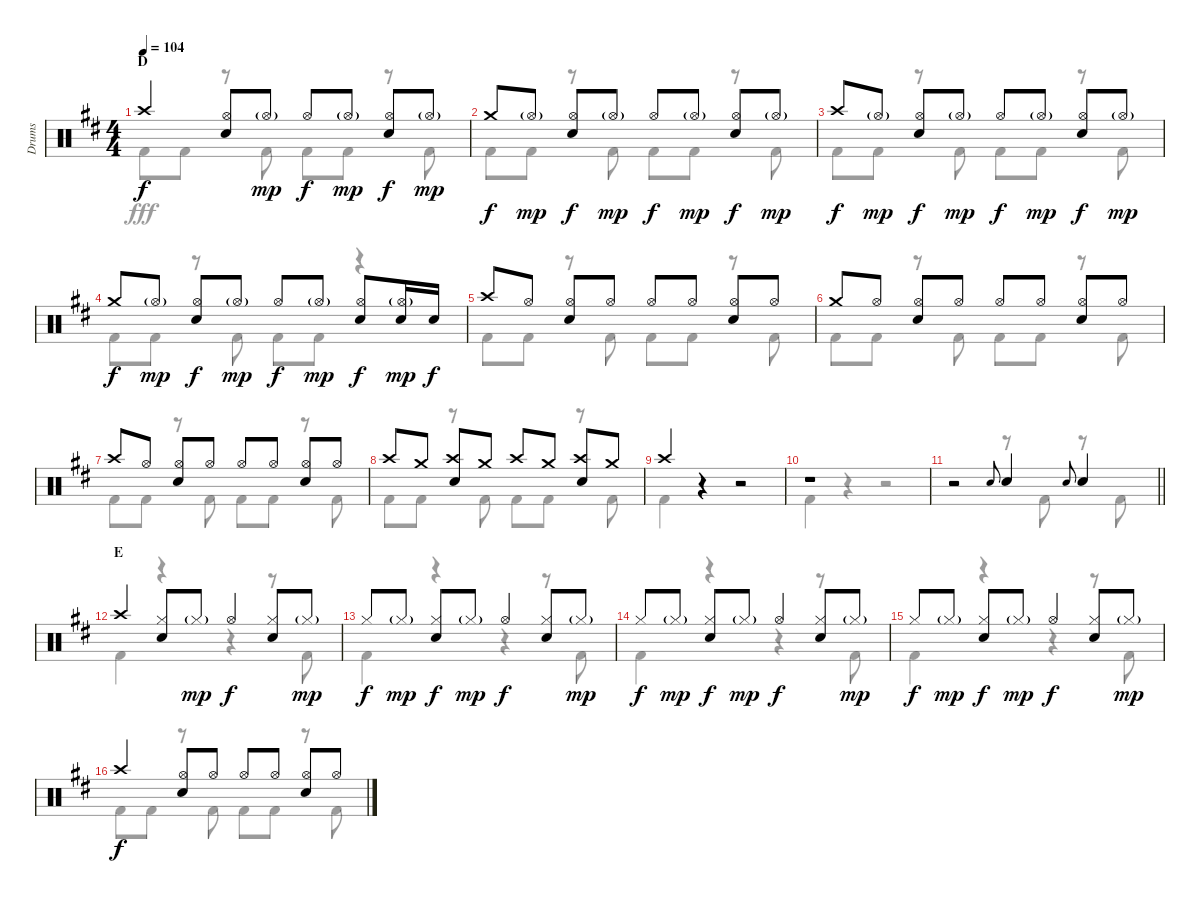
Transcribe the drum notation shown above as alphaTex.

\track ("Drums" "Drums") {instrument percussion}
\staff {score}
\articulation defaults
\voice
\ts (4 4)
\section ("" "D")
\tempo 104
\clef neutral
\ks d "Crash high (hit)".4{dy f}
("Hi-Hat (open)" "Snare (hit) 2").8 "Hi-Hat (open)"{g}.8{dy mp} "Hi-Hat (open)".8{dy f} "Hi-Hat (open)"{g}.8{dy mp} ("Hi-Hat (open)" "Snare (hit) 2").8{dy f} "Hi-Hat (open)"{g}.8{dy mp} |
"Crash medium (hit)".8{dy f} "Hi-Hat (open)"{g}.8{dy mp} ("Hi-Hat (open)" "Snare (hit) 2").8{dy f} "Hi-Hat (open)"{g}.8{dy mp} "Hi-Hat (open)".8{dy f} "Hi-Hat (open)"{g}.8{dy mp} ("Hi-Hat (open)" "Snare (hit) 2").8{dy f} "Hi-Hat (open)"{g}.8{dy mp} |
"Crash high (hit)".8{dy f} "Hi-Hat (open)"{g}.8{dy mp} ("Hi-Hat (open)" "Snare (hit) 2").8{dy f} "Hi-Hat (open)"{g}.8{dy mp} "Hi-Hat (open)".8{dy f} "Hi-Hat (open)"{g}.8{dy mp} ("Hi-Hat (open)" "Snare (hit) 2").8{dy f} "Hi-Hat (open)"{g}.8{dy mp} |
"Crash medium (hit)".8{dy f} "Hi-Hat (open)"{g}.8{dy mp} ("Hi-Hat (open)" "Snare (hit) 2").8{dy f} "Hi-Hat (open)"{g}.8{dy mp} "Hi-Hat (open)".8{dy f} "Hi-Hat (open)"{g}.8{dy mp} ("Hi-Hat (open)" "Snare (hit) 2").8{dy f} ("Hi-Hat (open)"{g} "Snare (hit) 2").16{dy mp} "Snare (hit) 2".16{dy f} |
"Crash high (hit)".8 "Hi-Hat (open)".8 ("Hi-Hat (open)" "Snare (hit) 2").8 "Hi-Hat (open)".8 "Hi-Hat (open)".8 "Hi-Hat (open)".8 ("Hi-Hat (open)" "Snare (hit) 2").8 "Hi-Hat (open)".8 |
"Crash medium (hit)".8 "Hi-Hat (open)".8 ("Hi-Hat (open)" "Snare (hit) 2").8 "Hi-Hat (open)".8 "Hi-Hat (open)".8 "Hi-Hat (open)".8 ("Hi-Hat (open)" "Snare (hit) 2").8 "Hi-Hat (open)".8 |
"Crash high (hit)".8 "Hi-Hat (open)".8 ("Hi-Hat (open)" "Snare (hit) 2").8 "Hi-Hat (open)".8 "Hi-Hat (open)".8 "Hi-Hat (open)".8 ("Hi-Hat (open)" "Snare (hit) 2").8 "Hi-Hat (open)".8 |
"Crash high (hit)".8 "Crash medium (hit)".8 ("Crash high (hit)" "Snare (hit) 2").8 "Crash medium (hit)".8 "Crash high (hit)".8 "Crash medium (hit)".8 ("Crash high (hit)" "Snare (hit) 2").8 "Crash medium (hit)".8 |
"Crash high (hit)".4 r.4 r.2 |
r.1 |
\barLineRight lightlight
r.2 "Snare (hit) 2".8{gr onbeat} "Snare (hit) 2".4 "Snare (hit) 2".8{gr onbeat} "Snare (hit) 2".4 |
\section ("" "E")
"Crash high (hit)".4 ("Hi-Hat (closed)" "Snare (hit) 2").8 "Hi-Hat (closed)"{g}.8{dy mp} "Hi-Hat (open)".4{dy f} ("Hi-Hat (closed)" "Snare (hit) 2").8 "Hi-Hat (closed)"{g}.8{dy mp} |
"Hi-Hat (closed)".8{dy f} "Hi-Hat (closed)"{g}.8{dy mp} ("Hi-Hat (closed)" "Snare (hit) 2").8{dy f} "Hi-Hat (closed)"{g}.8{dy mp} "Hi-Hat (open)".4{dy f} ("Hi-Hat (closed)" "Snare (hit) 2").8 "Hi-Hat (closed)"{g}.8{dy mp} |
"Hi-Hat (closed)".8{dy f} "Hi-Hat (closed)"{g}.8{dy mp} ("Hi-Hat (closed)" "Snare (hit) 2").8{dy f} "Hi-Hat (closed)"{g}.8{dy mp} "Hi-Hat (open)".4{dy f} ("Hi-Hat (closed)" "Snare (hit) 2").8 "Hi-Hat (closed)"{g}.8{dy mp} |
"Hi-Hat (closed)".8{dy f} "Hi-Hat (closed)"{g}.8{dy mp} ("Hi-Hat (closed)" "Snare (hit) 2").8{dy f} "Hi-Hat (closed)"{g}.8{dy mp} "Hi-Hat (open)".4{dy f} ("Hi-Hat (closed)" "Snare (hit) 2").8 "Hi-Hat (closed)"{g}.8{dy mp} |
"Crash high (hit)".4{dy f} ("Hi-Hat (open)" "Snare (hit) 2").8 "Hi-Hat (open)".8 "Hi-Hat (open)".8 "Hi-Hat (open)".8 ("Hi-Hat (open)" "Snare (hit) 2").8 "Hi-Hat (open)".8
\voice
\clef neutral
\ottava regular
\simile none
\ks d "Kick (hit) 2".8{dy fff} "Kick (hit) 2".8
r.8 "Kick (hit) 2".8 "Kick (hit) 2".8 "Kick (hit) 2".8 r.8 "Kick (hit) 2".8 |
"Kick (hit) 2".8 "Kick (hit) 2".8 r.8 "Kick (hit) 2".8 "Kick (hit) 2".8 "Kick (hit) 2".8 r.8 "Kick (hit) 2".8 |
"Kick (hit) 2".8 "Kick (hit) 2".8 r.8 "Kick (hit) 2".8 "Kick (hit) 2".8 "Kick (hit) 2".8 r.8 "Kick (hit) 2".8 |
"Kick (hit) 2".8 "Kick (hit) 2".8 r.8 "Kick (hit) 2".8 "Kick (hit) 2".8 "Kick (hit) 2".8 r.4 |
"Kick (hit) 2".8 "Kick (hit) 2".8 r.8 "Kick (hit) 2".8 "Kick (hit) 2".8 "Kick (hit) 2".8 r.8 "Kick (hit) 2".8 |
"Kick (hit) 2".8 "Kick (hit) 2".8 r.8 "Kick (hit) 2".8 "Kick (hit) 2".8 "Kick (hit) 2".8 r.8 "Kick (hit) 2".8 |
"Kick (hit) 2".8 "Kick (hit) 2".8 r.8 "Kick (hit) 2".8 "Kick (hit) 2".8 "Kick (hit) 2".8 r.8 "Kick (hit) 2".8 |
"Kick (hit) 2".8 "Kick (hit) 2".8 r.8 "Kick (hit) 2".8 "Kick (hit) 2".8 "Kick (hit) 2".8 r.8 "Kick (hit) 2".8 |
"Kick (hit) 2".4 r.4 r.2 |
"Kick (hit) 2".4 r.4 r.2 |
\barLineRight lightlight
r.2 r.8 "Kick (hit) 2".8 r.8 "Kick (hit) 2".8 |
"Kick (hit) 2".4 r.4 r.4 r.8 "Kick (hit) 2".8 |
"Kick (hit) 2".4 r.4 r.4 r.8 "Kick (hit) 2".8 |
"Kick (hit) 2".4 r.4 r.4 r.8 "Kick (hit) 2".8 |
"Kick (hit) 2".4 r.4 r.4 r.8 "Kick (hit) 2".8 |
"Kick (hit) 2".8 "Kick (hit) 2".8 r.8 "Kick (hit) 2".8 "Kick (hit) 2".8 "Kick (hit) 2".8 r.8 "Kick (hit) 2".8
